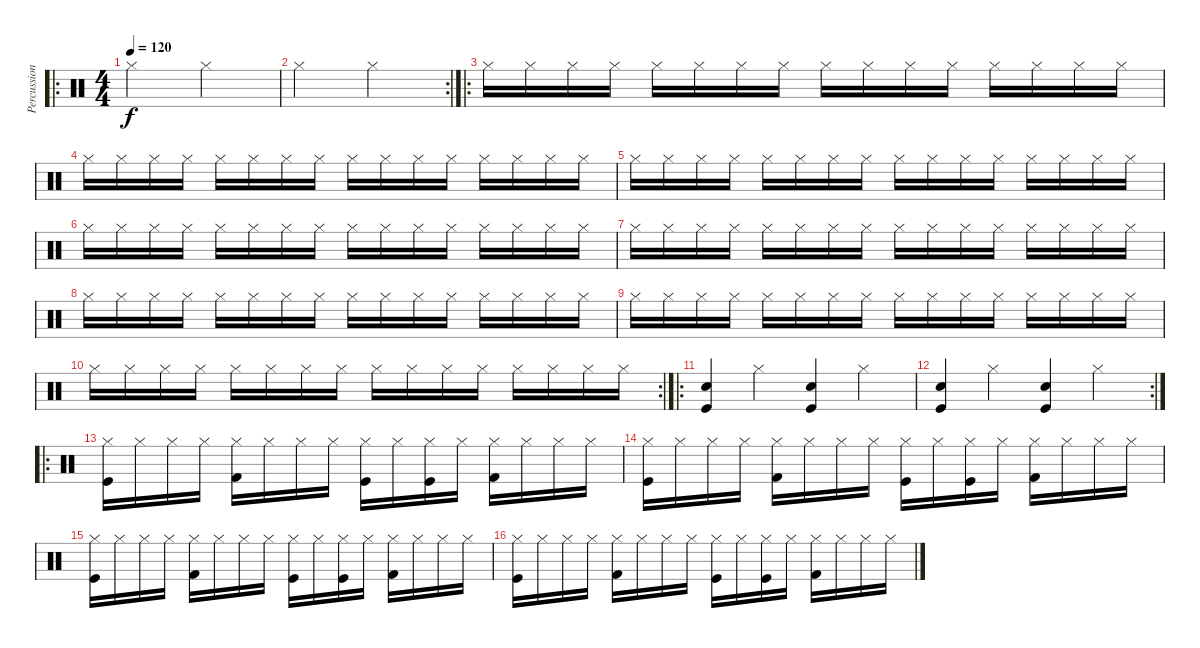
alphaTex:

\track ("Percussions" "Percussion") {instrument percussion}
\staff {score}
\articulation defaults
\ro
\ts (4 4)
\tempo 120
\clef neutral
\ks c "Hi-Hat (closed)".2{dy f} "Hi-Hat (closed)".2
|
\rc 2 "Hi-Hat (closed)".2 "Hi-Hat (closed)".2
|
\ro "Hi-Hat (closed)".16 "Hi-Hat (closed)".16 "Hi-Hat (closed)".16 "Hi-Hat (closed)".16 "Hi-Hat (closed)".16 "Hi-Hat (closed)".16 "Hi-Hat (closed)".16 "Hi-Hat (closed)".16 "Hi-Hat (closed)".16 "Hi-Hat (closed)".16 "Hi-Hat (closed)".16 "Hi-Hat (closed)".16 "Hi-Hat (closed)".16 "Hi-Hat (closed)".16 "Hi-Hat (closed)".16 "Hi-Hat (closed)".16
|
"Hi-Hat (closed)".16 "Hi-Hat (closed)".16 "Hi-Hat (closed)".16 "Hi-Hat (closed)".16 "Hi-Hat (closed)".16 "Hi-Hat (closed)".16 "Hi-Hat (closed)".16 "Hi-Hat (closed)".16 "Hi-Hat (closed)".16 "Hi-Hat (closed)".16 "Hi-Hat (closed)".16 "Hi-Hat (closed)".16 "Hi-Hat (closed)".16 "Hi-Hat (closed)".16 "Hi-Hat (closed)".16 "Hi-Hat (closed)".16 |
"Hi-Hat (closed)".16 "Hi-Hat (closed)".16 "Hi-Hat (closed)".16 "Hi-Hat (closed)".16 "Hi-Hat (closed)".16 "Hi-Hat (closed)".16 "Hi-Hat (closed)".16 "Hi-Hat (closed)".16 "Hi-Hat (closed)".16 "Hi-Hat (closed)".16 "Hi-Hat (closed)".16 "Hi-Hat (closed)".16 "Hi-Hat (closed)".16 "Hi-Hat (closed)".16 "Hi-Hat (closed)".16 "Hi-Hat (closed)".16 |
"Hi-Hat (closed)".16 "Hi-Hat (closed)".16 "Hi-Hat (closed)".16 "Hi-Hat (closed)".16 "Hi-Hat (closed)".16 "Hi-Hat (closed)".16 "Hi-Hat (closed)".16 "Hi-Hat (closed)".16 "Hi-Hat (closed)".16 "Hi-Hat (closed)".16 "Hi-Hat (closed)".16 "Hi-Hat (closed)".16 "Hi-Hat (closed)".16 "Hi-Hat (closed)".16 "Hi-Hat (closed)".16 "Hi-Hat (closed)".16 |
"Hi-Hat (closed)".16 "Hi-Hat (closed)".16 "Hi-Hat (closed)".16 "Hi-Hat (closed)".16 "Hi-Hat (closed)".16 "Hi-Hat (closed)".16 "Hi-Hat (closed)".16 "Hi-Hat (closed)".16 "Hi-Hat (closed)".16 "Hi-Hat (closed)".16 "Hi-Hat (closed)".16 "Hi-Hat (closed)".16 "Hi-Hat (closed)".16 "Hi-Hat (closed)".16 "Hi-Hat (closed)".16 "Hi-Hat (closed)".16 |
"Hi-Hat (closed)".16 "Hi-Hat (closed)".16 "Hi-Hat (closed)".16 "Hi-Hat (closed)".16 "Hi-Hat (closed)".16 "Hi-Hat (closed)".16 "Hi-Hat (closed)".16 "Hi-Hat (closed)".16 "Hi-Hat (closed)".16 "Hi-Hat (closed)".16 "Hi-Hat (closed)".16 "Hi-Hat (closed)".16 "Hi-Hat (closed)".16 "Hi-Hat (closed)".16 "Hi-Hat (closed)".16 "Hi-Hat (closed)".16 |
"Hi-Hat (closed)".16 "Hi-Hat (closed)".16 "Hi-Hat (closed)".16 "Hi-Hat (closed)".16 "Hi-Hat (closed)".16 "Hi-Hat (closed)".16 "Hi-Hat (closed)".16 "Hi-Hat (closed)".16 "Hi-Hat (closed)".16 "Hi-Hat (closed)".16 "Hi-Hat (closed)".16 "Hi-Hat (closed)".16 "Hi-Hat (closed)".16 "Hi-Hat (closed)".16 "Hi-Hat (closed)".16 "Hi-Hat (closed)".16 |
\rc 2 "Hi-Hat (closed)".16 "Hi-Hat (closed)".16 "Hi-Hat (closed)".16 "Hi-Hat (closed)".16 "Hi-Hat (closed)".16 "Hi-Hat (closed)".16 "Hi-Hat (closed)".16 "Hi-Hat (closed)".16 "Hi-Hat (closed)".16 "Hi-Hat (closed)".16 "Hi-Hat (closed)".16 "Hi-Hat (closed)".16 "Hi-Hat (closed)".16 "Hi-Hat (closed)".16 "Hi-Hat (closed)".16 "Hi-Hat (closed)".16
|
\ro
("Kick (hit)" "Electric Snare (hit)").4 "Hi-Hat (closed)".4 ("Kick (hit)" "Electric Snare (hit)").4 "Hi-Hat (closed)".4 |
\rc 2
("Kick (hit)" "Electric Snare (hit)").4 "Hi-Hat (closed)".4 ("Kick (hit)" "Electric Snare (hit)").4 "Hi-Hat (closed)".4 |
\ro
("Hi-Hat (closed)" "Kick (hit)").16 "Hi-Hat (closed)".16 "Hi-Hat (closed)".16 "Hi-Hat (closed)".16 ("Hi-Hat (closed)" "Kick (hit) 2").16 "Hi-Hat (closed)".16 "Hi-Hat (closed)".16 "Hi-Hat (closed)".16 ("Hi-Hat (closed)" "Kick (hit)").16 "Hi-Hat (closed)".16 ("Hi-Hat (closed)" "Kick (hit)").16 "Hi-Hat (closed)".16 ("Hi-Hat (closed)" "Kick (hit) 2").16 "Hi-Hat (closed)".16 "Hi-Hat (closed)".16 "Hi-Hat (closed)".16 |
("Hi-Hat (closed)" "Kick (hit)").16 "Hi-Hat (closed)".16 "Hi-Hat (closed)".16 "Hi-Hat (closed)".16 ("Hi-Hat (closed)" "Kick (hit) 2").16 "Hi-Hat (closed)".16 "Hi-Hat (closed)".16 "Hi-Hat (closed)".16 ("Hi-Hat (closed)" "Kick (hit)").16 "Hi-Hat (closed)".16 ("Hi-Hat (closed)" "Kick (hit)").16 "Hi-Hat (closed)".16 ("Hi-Hat (closed)" "Kick (hit) 2").16 "Hi-Hat (closed)".16 "Hi-Hat (closed)".16 "Hi-Hat (closed)".16 |
("Hi-Hat (closed)" "Kick (hit)").16 "Hi-Hat (closed)".16 "Hi-Hat (closed)".16 "Hi-Hat (closed)".16 ("Hi-Hat (closed)" "Kick (hit) 2").16 "Hi-Hat (closed)".16 "Hi-Hat (closed)".16 "Hi-Hat (closed)".16 ("Hi-Hat (closed)" "Kick (hit)").16 "Hi-Hat (closed)".16 ("Hi-Hat (closed)" "Kick (hit)").16 "Hi-Hat (closed)".16 ("Hi-Hat (closed)" "Kick (hit) 2").16 "Hi-Hat (closed)".16 "Hi-Hat (closed)".16 "Hi-Hat (closed)".16 |
("Hi-Hat (closed)" "Kick (hit)").16 "Hi-Hat (closed)".16 "Hi-Hat (closed)".16 "Hi-Hat (closed)".16 ("Hi-Hat (closed)" "Kick (hit) 2").16 "Hi-Hat (closed)".16 "Hi-Hat (closed)".16 "Hi-Hat (closed)".16 ("Hi-Hat (closed)" "Kick (hit)").16 "Hi-Hat (closed)".16 ("Hi-Hat (closed)" "Kick (hit)").16 "Hi-Hat (closed)".16 ("Hi-Hat (closed)" "Kick (hit) 2").16 "Hi-Hat (closed)".16 "Hi-Hat (closed)".16 "Hi-Hat (closed)".16
